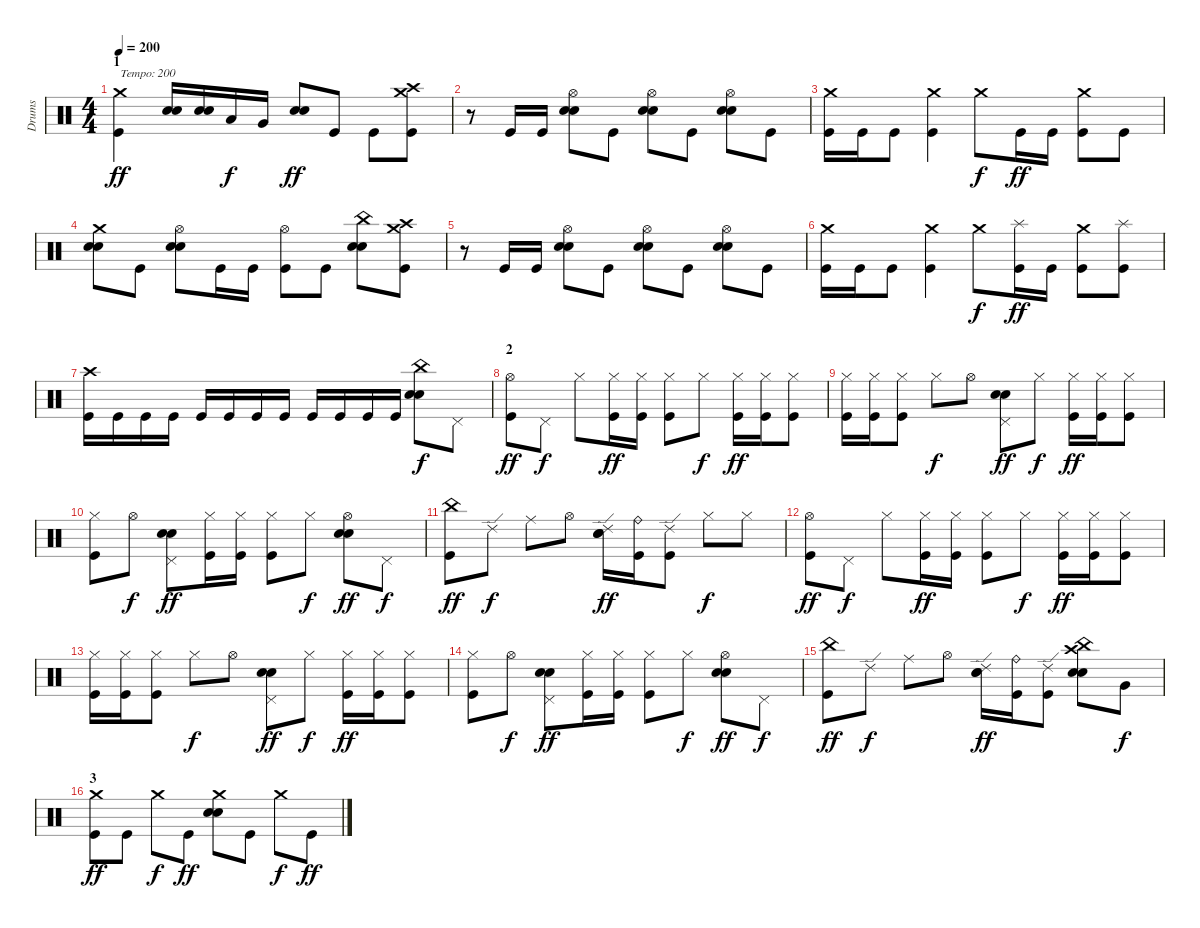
\track ("Drums" "Drums") {instrument percussion}
\staff {score}
\articulation defaults
\ts (4 4)
\section ("" "1")
\tempo 200
\clef neutral
\ks c
("Kick (hit)" "Crash medium (hit)").4{txt "Tempo: 200" dy ff} ("Electric Snare (hit)" "Electric Snare (hit)").16 ("Electric Snare (hit)" "Electric Snare (hit)").16 "Low Tom (hit)".16{dy f} "Very Low Tom (hit)".16 ("Electric Snare (hit)" "Electric Snare (hit)").8{dy ff} "Kick (hit)".8 "Kick (hit)".8 ("Kick (hit)" "Crash high (hit)" "Crash medium (hit)").8 |
r.8 "Kick (hit)".16 "Kick (hit)".16 ("Electric Snare (hit)" "Electric Snare (hit)" "Hi-Hat (open)").8 "Kick (hit)".8 ("Electric Snare (hit)" "Electric Snare (hit)" "Hi-Hat (open)").8 "Kick (hit)".8 ("Electric Snare (hit)" "Electric Snare (hit)" "Hi-Hat (open)").8 "Kick (hit)".8 |
("Kick (hit)" "Crash medium (hit)").16 "Kick (hit)".16 "Kick (hit)".8 ("Kick (hit)" "Crash medium (hit)").4 "Crash medium (hit)".8{dy f} "Kick (hit)".16{dy ff} "Kick (hit)".16 ("Kick (hit)" "Crash medium (hit)").8 "Kick (hit)".8 |
("Electric Snare (hit)" "Electric Snare (hit)" "Crash medium (hit)").8 "Kick (hit)".8 ("Electric Snare (hit)" "Electric Snare (hit)" "Hi-Hat (open)").8 "Kick (hit)".16 "Kick (hit)".16 ("Kick (hit)" "Hi-Hat (open)").8 "Kick (hit)".8 ("Electric Snare (hit)" "Electric Snare (hit)" "China (hit)").8 ("Kick (hit)" "Crash high (hit)" "Crash medium (hit)").8 |
r.8 "Kick (hit)".16 "Kick (hit)".16 ("Electric Snare (hit)" "Electric Snare (hit)" "Hi-Hat (open)").8 "Kick (hit)".8 ("Electric Snare (hit)" "Electric Snare (hit)" "Hi-Hat (open)").8 "Kick (hit)".8 ("Electric Snare (hit)" "Electric Snare (hit)" "Hi-Hat (open)").8 "Kick (hit)".8 |
("Kick (hit)" "Crash medium (hit)").16 "Kick (hit)".16 "Kick (hit)".8 ("Kick (hit)" "Crash medium (hit)").4 "Crash medium (hit)".8{dy f} ("Kick (hit)" "Splash (hit)").16{dy ff} "Kick (hit)".16 ("Kick (hit)" "Crash medium (hit)").8 ("Kick (hit)" "Splash (hit)").8 |
("Kick (hit)" "Crash high (hit)").16 "Kick (hit)".16 "Kick (hit)".16 "Kick (hit)".16 "Kick (hit)".16 "Kick (hit)".16 "Kick (hit)".16 "Kick (hit)".16 "Kick (hit)".16 "Kick (hit)".16 "Kick (hit)".16 "Kick (hit)".16 ("Electric Snare (hit)" "Electric Snare (hit)" "China (hit)").8{dy f} "Pedal Hi-Hat (hit)".8 |
\section ("" "2")
("Kick (hit)" "Hi-Hat (open)").8{dy ff} "Pedal Hi-Hat (hit)".8{dy f} "Hi-Hat (closed)".8 ("Kick (hit)" "Hi-Hat (closed)").16{dy ff} ("Kick (hit)" "Hi-Hat (closed)").16 ("Kick (hit)" "Hi-Hat (closed)").8 "Hi-Hat (closed)".8{dy f} ("Kick (hit)" "Hi-Hat (closed)").16{dy ff} ("Kick (hit)" "Hi-Hat (closed)").16 ("Kick (hit)" "Hi-Hat (closed)").8 |
("Kick (hit)" "Hi-Hat (closed)").16 ("Kick (hit)" "Hi-Hat (closed)").16 ("Kick (hit)" "Hi-Hat (closed)").8 "Hi-Hat (closed)".8{dy f} "Hi-Hat (open)".8 ("Electric Snare (hit)" "Electric Snare (hit)" "Pedal Hi-Hat (hit)").8{dy ff} "Hi-Hat (closed)".8{dy f} ("Kick (hit)" "Hi-Hat (closed)").16{dy ff} ("Kick (hit)" "Hi-Hat (closed)").16 ("Kick (hit)" "Hi-Hat (closed)").8 |
("Kick (hit)" "Hi-Hat (closed)").8 "Hi-Hat (open)".8{dy f} ("Electric Snare (hit)" "Electric Snare (hit)" "Pedal Hi-Hat (hit)").8{dy ff} ("Kick (hit)" "Hi-Hat (closed)").16 ("Kick (hit)" "Hi-Hat (closed)").16 ("Kick (hit)" "Hi-Hat (closed)").8 "Hi-Hat (closed)".8{dy f} ("Electric Snare (hit)" "Electric Snare (hit)" "Hi-Hat (open)").8{dy ff} "Pedal Hi-Hat (hit)".8{dy f} |
("Kick (hit)" "China (hit)").8{dy ff} "Ride (edge) 2".8{dy f} "Ride (middle)".8 "Hi-Hat (open)".8 ("Electric Snare (hit)" "Electric Snare (hit)" "Ride (edge) 2").16{dy ff} ("Kick (hit)" "Ride (bell)").16 ("Kick (hit)" "Ride (edge) 2").8 "Hi-Hat (closed)".8{dy f} "Hi-Hat (closed)".8 |
("Kick (hit)" "Hi-Hat (open)").8{dy ff} "Pedal Hi-Hat (hit)".8{dy f} "Hi-Hat (closed)".8 ("Kick (hit)" "Hi-Hat (closed)").16{dy ff} ("Kick (hit)" "Hi-Hat (closed)").16 ("Kick (hit)" "Hi-Hat (closed)").8 "Hi-Hat (closed)".8{dy f} ("Kick (hit)" "Hi-Hat (closed)").16{dy ff} ("Kick (hit)" "Hi-Hat (closed)").16 ("Kick (hit)" "Hi-Hat (closed)").8 |
("Kick (hit)" "Hi-Hat (closed)").16 ("Kick (hit)" "Hi-Hat (closed)").16 ("Kick (hit)" "Hi-Hat (closed)").8 "Hi-Hat (closed)".8{dy f} "Hi-Hat (open)".8 ("Electric Snare (hit)" "Electric Snare (hit)" "Pedal Hi-Hat (hit)").8{dy ff} "Hi-Hat (closed)".8{dy f} ("Kick (hit)" "Hi-Hat (closed)").16{dy ff} ("Kick (hit)" "Hi-Hat (closed)").16 ("Kick (hit)" "Hi-Hat (closed)").8 |
("Kick (hit)" "Hi-Hat (closed)").8 "Hi-Hat (open)".8{dy f} ("Electric Snare (hit)" "Electric Snare (hit)" "Pedal Hi-Hat (hit)").8{dy ff} ("Kick (hit)" "Hi-Hat (closed)").16 ("Kick (hit)" "Hi-Hat (closed)").16 ("Kick (hit)" "Hi-Hat (closed)").8 "Hi-Hat (closed)".8{dy f} ("Electric Snare (hit)" "Electric Snare (hit)" "Hi-Hat (open)").8{dy ff} "Pedal Hi-Hat (hit)".8{dy f} |
("Kick (hit)" "China (hit)").8{dy ff} "Ride (edge) 2".8{dy f} "Ride (middle)".8 "Hi-Hat (open)".8 ("Electric Snare (hit)" "Electric Snare (hit)" "Ride (edge) 2").16{dy ff} ("Kick (hit)" "Ride (bell)").16 ("Kick (hit)" "Ride (edge) 2").8 ("Electric Snare (hit)" "Electric Snare (hit)" "China (hit)" "Crash high (hit)").8 "Very Low Tom (hit)".8{dy f} |
\section ("" "3")
("Kick (hit)" "Crash medium (hit)").8{dy ff} "Kick (hit)".8 "Crash medium (hit)".8{dy f} "Kick (hit)".8{dy ff} ("Electric Snare (hit)" "Electric Snare (hit)" "Crash medium (hit)").8 "Kick (hit)".8 "Crash medium (hit)".8{dy f} "Kick (hit)".8{dy ff}
